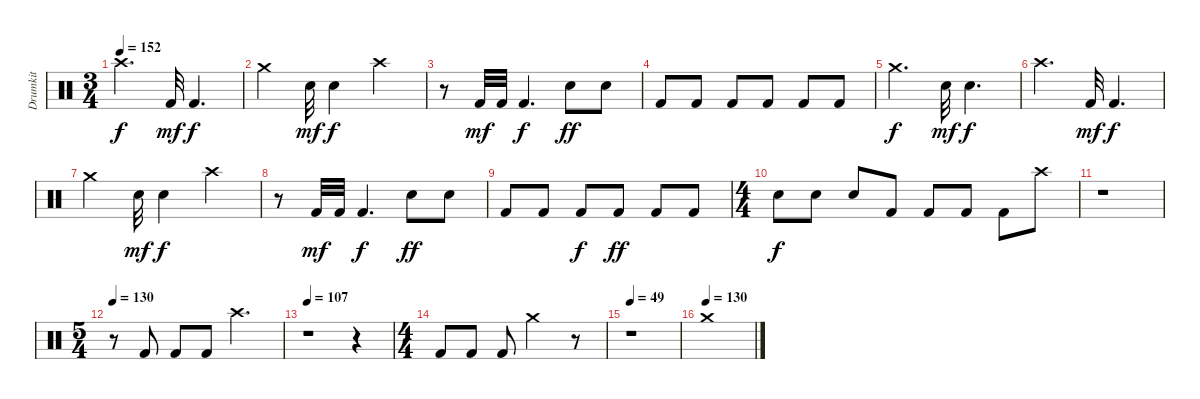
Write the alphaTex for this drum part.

\track ("Drumkit" "Drumkit") {instrument percussion}
\staff {score}
\articulation defaults
\ts (3 4)
\tempo 152
\clef neutral
\ks c "Crash high (hit)".4{d dy f} "Kick (hit) 2".32{dy mf} "Kick (hit) 2".4{d dy f}
|
"Crash medium (hit)".4 "Snare (hit) 2".32{dy mf} "Snare (hit) 2".4{dy f} "Crash high (hit)".4 |
r.8 "Kick (hit) 2".32{dy mf} "Kick (hit) 2".32 "Kick (hit) 2".4{d dy f} "Snare (hit) 2".8{dy ff} "Snare (hit) 2".8 |
"Kick (hit) 2".8 "Kick (hit) 2".8 "Kick (hit) 2".8 "Kick (hit) 2".8 "Kick (hit) 2".8 "Kick (hit) 2".8 |
"Crash medium (hit)".4{d dy f} "Snare (hit) 2".32{dy mf} "Snare (hit) 2".4{d dy f} |
"Crash high (hit)".4{d} "Kick (hit) 2".32{dy mf} "Kick (hit) 2".4{d dy f} |
"Crash medium (hit)".4 "Snare (hit) 2".32{dy mf} "Snare (hit) 2".4{dy f} "Crash high (hit)".4 |
r.8 "Kick (hit) 2".32{dy mf} "Kick (hit) 2".32 "Kick (hit) 2".4{d dy f} "Snare (hit) 2".8{dy ff} "Snare (hit) 2".8 |
"Kick (hit) 2".8 "Kick (hit) 2".8 "Kick (hit) 2".8{dy f} "Kick (hit) 2".8{dy ff} "Kick (hit) 2".8 "Kick (hit) 2".8 |
\ts (4 4)
"Snare (hit) 2".8{dy f} "Snare (hit) 2".8 "Snare (hit) 2".8 "Kick (hit) 2".8 "Kick (hit) 2".8 "Kick (hit) 2".8 "Kick (hit) 2".8 "Crash high (hit)".8 |
r.1 |
\ts (5 4)
\tempo 130
r.8 "Kick (hit) 2".8 "Kick (hit) 2".8 "Kick (hit) 2".8 "Crash high (hit)".2{d} |
\tempo 107
r.1 r.4 |
\ts (4 4)
"Kick (hit) 2".8 "Kick (hit) 2".8 "Kick (hit) 2".8 "Crash medium (hit)".2 r.8 |
\tempo 49
r.1 |
\tempo (130)
"Crash medium (hit)".1
